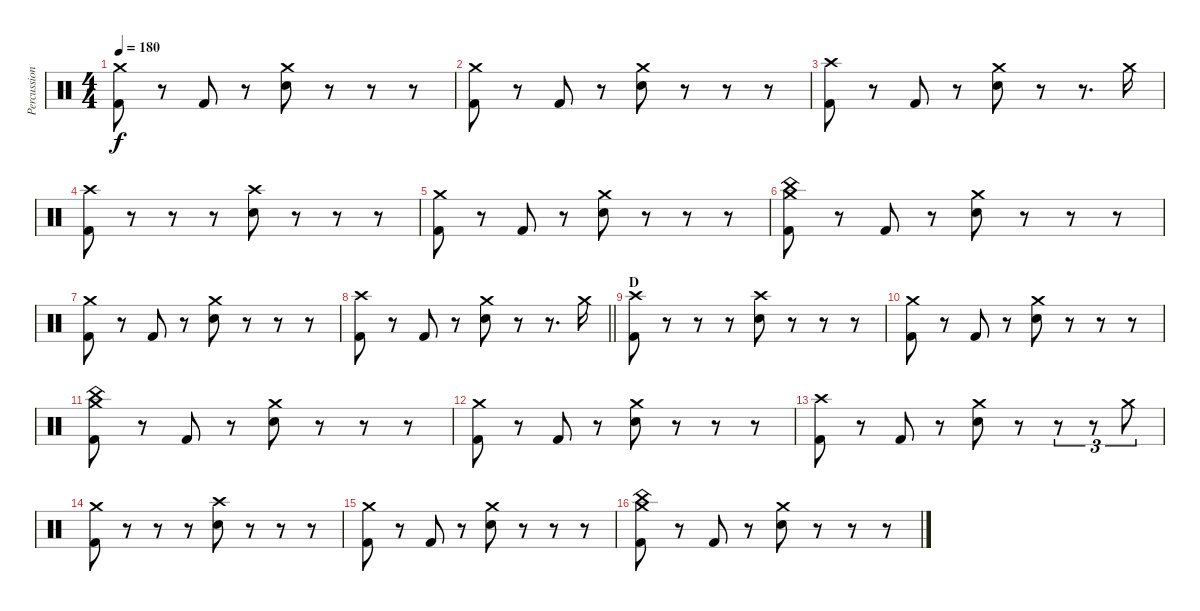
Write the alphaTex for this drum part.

\track ("Percussion" "Percussion") {instrument percussion}
\staff {score}
\articulation defaults
\ts (4 4)
\tempo 180
\clef neutral
\ks c
("Crash medium (hit)" "Kick (hit) 2").8{dy f} r.8 "Kick (hit) 2".8 r.8 ("Crash medium (hit)" "Snare (hit) 2").8 r.8 r.8 r.8 |
("Crash medium (hit)" "Kick (hit) 2").8 r.8 "Kick (hit) 2".8 r.8 ("Crash medium (hit)" "Snare (hit) 2").8 r.8 r.8 r.8 |
("Crash high (hit)" "Kick (hit) 2").8 r.8 "Kick (hit) 2".8 r.8 ("Crash medium (hit)" "Snare (hit) 2").8 r.8 r.8{d} "Crash medium (hit)".16 |
("Crash high (hit)" "Kick (hit) 2").8 r.8 r.8 r.8 ("Crash high (hit)" "Snare (hit) 2").8 r.8 r.8 r.8 |
("Crash medium (hit)" "Kick (hit) 2").8 r.8 "Kick (hit) 2".8 r.8 ("Crash medium (hit)" "Snare (hit) 2").8 r.8 r.8 r.8 |
("Crash medium (hit)" "China (hit)" "Kick (hit) 2").8 r.8 "Kick (hit) 2".8 r.8 ("Crash medium (hit)" "Snare (hit) 2").8 r.8 r.8 r.8 |
("Crash medium (hit)" "Kick (hit) 2").8 r.8 "Kick (hit) 2".8 r.8 ("Crash medium (hit)" "Snare (hit) 2").8 r.8 r.8 r.8 |
\barLineRight lightlight
("Crash high (hit)" "Kick (hit) 2").8 r.8 "Kick (hit) 2".8 r.8 ("Crash medium (hit)" "Snare (hit) 2").8 r.8 r.8{d} "Crash medium (hit)".16 |
\section ("" "D")
("Crash high (hit)" "Kick (hit) 2").8 r.8 r.8 r.8 ("Crash high (hit)" "Snare (hit) 2").8 r.8 r.8 r.8 |
("Crash medium (hit)" "Kick (hit) 2").8 r.8 "Kick (hit) 2".8 r.8 ("Crash medium (hit)" "Snare (hit) 2").8 r.8 r.8 r.8 |
("Crash medium (hit)" "China (hit)" "Kick (hit) 2").8 r.8 "Kick (hit) 2".8 r.8 ("Crash medium (hit)" "Snare (hit) 2").8 r.8 r.8 r.8 |
("Crash medium (hit)" "Kick (hit) 2").8 r.8 "Kick (hit) 2".8 r.8 ("Crash medium (hit)" "Snare (hit) 2").8 r.8 r.8 r.8 |
("Crash high (hit)" "Kick (hit) 2").8 r.8 "Kick (hit) 2".8 r.8 ("Crash medium (hit)" "Snare (hit) 2").8 r.8 r.8{tu (3 2)} r.8{tu (3 2)} "Crash medium (hit)".8{tu (3 2)} |
("Crash medium (hit)" "Kick (hit) 2").8 r.8 r.8 r.8 ("Crash high (hit)" "Snare (hit) 2").8 r.8 r.8 r.8 |
("Crash medium (hit)" "Kick (hit) 2").8 r.8 "Kick (hit) 2".8 r.8 ("Crash medium (hit)" "Snare (hit) 2").8 r.8 r.8 r.8 |
("Crash medium (hit)" "China (hit)" "Kick (hit) 2").8 r.8 "Kick (hit) 2".8 r.8 ("Crash medium (hit)" "Snare (hit) 2").8 r.8 r.8 r.8
